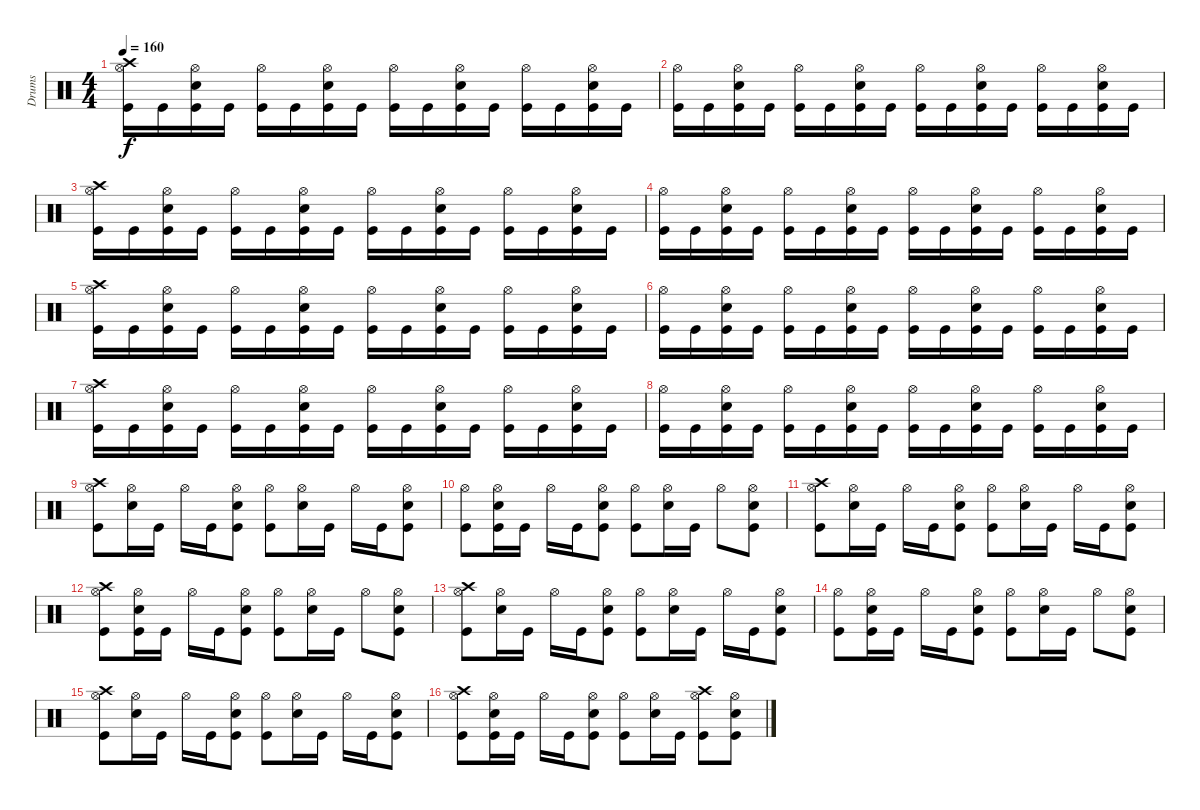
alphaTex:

\track ("Drums" "Drums") {instrument percussion}
\staff {score}
\articulation defaults
\ts (4 4)
\tempo 160
\clef neutral
\ks c
("Crash high (hit)" "Hi-Hat (open)" "Kick (hit)").16{dy f} "Kick (hit)".16 ("Hi-Hat (open)" "Electric Snare (hit)" "Kick (hit)").16 "Kick (hit)".16 ("Hi-Hat (open)" "Kick (hit)").16 "Kick (hit)".16 ("Hi-Hat (open)" "Electric Snare (hit)" "Kick (hit)").16 "Kick (hit)".16 ("Hi-Hat (open)" "Kick (hit)").16 "Kick (hit)".16 ("Hi-Hat (open)" "Electric Snare (hit)" "Kick (hit)").16 "Kick (hit)".16 ("Hi-Hat (open)" "Kick (hit)").16 "Kick (hit)".16 ("Hi-Hat (open)" "Electric Snare (hit)" "Kick (hit)").16 "Kick (hit)".16 |
("Hi-Hat (open)" "Kick (hit)").16 "Kick (hit)".16 ("Hi-Hat (open)" "Electric Snare (hit)" "Kick (hit)").16 "Kick (hit)".16 ("Hi-Hat (open)" "Kick (hit)").16 "Kick (hit)".16 ("Hi-Hat (open)" "Electric Snare (hit)" "Kick (hit)").16 "Kick (hit)".16 ("Hi-Hat (open)" "Kick (hit)").16 "Kick (hit)".16 ("Hi-Hat (open)" "Electric Snare (hit)" "Kick (hit)").16 "Kick (hit)".16 ("Hi-Hat (open)" "Kick (hit)").16 "Kick (hit)".16 ("Hi-Hat (open)" "Electric Snare (hit)" "Kick (hit)").16 "Kick (hit)".16 |
("Crash high (hit)" "Hi-Hat (open)" "Kick (hit)").16 "Kick (hit)".16 ("Hi-Hat (open)" "Electric Snare (hit)" "Kick (hit)").16 "Kick (hit)".16 ("Hi-Hat (open)" "Kick (hit)").16 "Kick (hit)".16 ("Hi-Hat (open)" "Electric Snare (hit)" "Kick (hit)").16 "Kick (hit)".16 ("Hi-Hat (open)" "Kick (hit)").16 "Kick (hit)".16 ("Hi-Hat (open)" "Electric Snare (hit)" "Kick (hit)").16 "Kick (hit)".16 ("Hi-Hat (open)" "Kick (hit)").16 "Kick (hit)".16 ("Hi-Hat (open)" "Electric Snare (hit)" "Kick (hit)").16 "Kick (hit)".16 |
("Hi-Hat (open)" "Kick (hit)").16 "Kick (hit)".16 ("Hi-Hat (open)" "Electric Snare (hit)" "Kick (hit)").16 "Kick (hit)".16 ("Hi-Hat (open)" "Kick (hit)").16 "Kick (hit)".16 ("Hi-Hat (open)" "Electric Snare (hit)" "Kick (hit)").16 "Kick (hit)".16 ("Hi-Hat (open)" "Kick (hit)").16 "Kick (hit)".16 ("Hi-Hat (open)" "Electric Snare (hit)" "Kick (hit)").16 "Kick (hit)".16 ("Hi-Hat (open)" "Kick (hit)").16 "Kick (hit)".16 ("Hi-Hat (open)" "Electric Snare (hit)" "Kick (hit)").16 "Kick (hit)".16 |
("Crash high (hit)" "Hi-Hat (open)" "Kick (hit)").16 "Kick (hit)".16 ("Hi-Hat (open)" "Electric Snare (hit)" "Kick (hit)").16 "Kick (hit)".16 ("Hi-Hat (open)" "Kick (hit)").16 "Kick (hit)".16 ("Hi-Hat (open)" "Electric Snare (hit)" "Kick (hit)").16 "Kick (hit)".16 ("Hi-Hat (open)" "Kick (hit)").16 "Kick (hit)".16 ("Hi-Hat (open)" "Electric Snare (hit)" "Kick (hit)").16 "Kick (hit)".16 ("Hi-Hat (open)" "Kick (hit)").16 "Kick (hit)".16 ("Hi-Hat (open)" "Electric Snare (hit)" "Kick (hit)").16 "Kick (hit)".16 |
("Hi-Hat (open)" "Kick (hit)").16 "Kick (hit)".16 ("Hi-Hat (open)" "Electric Snare (hit)" "Kick (hit)").16 "Kick (hit)".16 ("Hi-Hat (open)" "Kick (hit)").16 "Kick (hit)".16 ("Hi-Hat (open)" "Electric Snare (hit)" "Kick (hit)").16 "Kick (hit)".16 ("Hi-Hat (open)" "Kick (hit)").16 "Kick (hit)".16 ("Hi-Hat (open)" "Electric Snare (hit)" "Kick (hit)").16 "Kick (hit)".16 ("Hi-Hat (open)" "Kick (hit)").16 "Kick (hit)".16 ("Hi-Hat (open)" "Electric Snare (hit)" "Kick (hit)").16 "Kick (hit)".16 |
("Crash high (hit)" "Hi-Hat (open)" "Kick (hit)").16 "Kick (hit)".16 ("Hi-Hat (open)" "Electric Snare (hit)" "Kick (hit)").16 "Kick (hit)".16 ("Hi-Hat (open)" "Kick (hit)").16 "Kick (hit)".16 ("Hi-Hat (open)" "Electric Snare (hit)" "Kick (hit)").16 "Kick (hit)".16 ("Hi-Hat (open)" "Kick (hit)").16 "Kick (hit)".16 ("Hi-Hat (open)" "Electric Snare (hit)" "Kick (hit)").16 "Kick (hit)".16 ("Hi-Hat (open)" "Kick (hit)").16 "Kick (hit)".16 ("Hi-Hat (open)" "Electric Snare (hit)" "Kick (hit)").16 "Kick (hit)".16 |
("Hi-Hat (open)" "Kick (hit)").16 "Kick (hit)".16 ("Hi-Hat (open)" "Electric Snare (hit)" "Kick (hit)").16 "Kick (hit)".16 ("Hi-Hat (open)" "Kick (hit)").16 "Kick (hit)".16 ("Hi-Hat (open)" "Electric Snare (hit)" "Kick (hit)").16 "Kick (hit)".16 ("Hi-Hat (open)" "Kick (hit)").16 "Kick (hit)".16 ("Hi-Hat (open)" "Electric Snare (hit)" "Kick (hit)").16 "Kick (hit)".16 ("Hi-Hat (open)" "Kick (hit)").16 "Kick (hit)".16 ("Hi-Hat (open)" "Electric Snare (hit)" "Kick (hit)").16 "Kick (hit)".16 |
("Crash high (hit)" "Hi-Hat (open)" "Kick (hit)").8 ("Hi-Hat (open)" "Electric Snare (hit)").16 "Kick (hit)".16 "Hi-Hat (open)".16 "Kick (hit)".16 ("Hi-Hat (open)" "Electric Snare (hit)" "Kick (hit)").8 ("Hi-Hat (open)" "Kick (hit)").8 ("Hi-Hat (open)" "Electric Snare (hit)").16 "Kick (hit)".16 "Hi-Hat (open)".16 "Kick (hit)".16 ("Hi-Hat (open)" "Electric Snare (hit)" "Kick (hit)").8 |
("Hi-Hat (open)" "Kick (hit)").8 ("Hi-Hat (open)" "Electric Snare (hit)" "Kick (hit)").16 "Kick (hit)".16 "Hi-Hat (open)".16 "Kick (hit)".16 ("Hi-Hat (open)" "Electric Snare (hit)" "Kick (hit)").8 ("Hi-Hat (open)" "Kick (hit)").8 ("Hi-Hat (open)" "Electric Snare (hit)").16 "Kick (hit)".16 "Hi-Hat (open)".8 ("Hi-Hat (open)" "Electric Snare (hit)" "Kick (hit)").8 |
("Crash high (hit)" "Hi-Hat (open)" "Kick (hit)").8 ("Hi-Hat (open)" "Electric Snare (hit)").16 "Kick (hit)".16 "Hi-Hat (open)".16 "Kick (hit)".16 ("Hi-Hat (open)" "Electric Snare (hit)" "Kick (hit)").8 ("Hi-Hat (open)" "Kick (hit)").8 ("Hi-Hat (open)" "Electric Snare (hit)").16 "Kick (hit)".16 "Hi-Hat (open)".16 "Kick (hit)".16 ("Hi-Hat (open)" "Electric Snare (hit)" "Kick (hit)").8 |
("Crash high (hit)" "Hi-Hat (open)" "Kick (hit)").8 ("Hi-Hat (open)" "Electric Snare (hit)" "Kick (hit)").16 "Kick (hit)".16 "Hi-Hat (open)".16 "Kick (hit)".16 ("Hi-Hat (open)" "Electric Snare (hit)" "Kick (hit)").8 ("Hi-Hat (open)" "Kick (hit)").8 ("Hi-Hat (open)" "Electric Snare (hit)").16 "Kick (hit)".16 "Hi-Hat (open)".8 ("Hi-Hat (open)" "Electric Snare (hit)" "Kick (hit)").8 |
("Crash high (hit)" "Hi-Hat (open)" "Kick (hit)").8 ("Hi-Hat (open)" "Electric Snare (hit)").16 "Kick (hit)".16 "Hi-Hat (open)".16 "Kick (hit)".16 ("Hi-Hat (open)" "Electric Snare (hit)" "Kick (hit)").8 ("Hi-Hat (open)" "Kick (hit)").8 ("Hi-Hat (open)" "Electric Snare (hit)").16 "Kick (hit)".16 "Hi-Hat (open)".16 "Kick (hit)".16 ("Hi-Hat (open)" "Electric Snare (hit)" "Kick (hit)").8 |
("Hi-Hat (open)" "Kick (hit)").8 ("Hi-Hat (open)" "Electric Snare (hit)" "Kick (hit)").16 "Kick (hit)".16 "Hi-Hat (open)".16 "Kick (hit)".16 ("Hi-Hat (open)" "Electric Snare (hit)" "Kick (hit)").8 ("Hi-Hat (open)" "Kick (hit)").8 ("Hi-Hat (open)" "Electric Snare (hit)").16 "Kick (hit)".16 "Hi-Hat (open)".8 ("Hi-Hat (open)" "Electric Snare (hit)" "Kick (hit)").8 |
("Crash high (hit)" "Hi-Hat (open)" "Kick (hit)").8 ("Hi-Hat (open)" "Electric Snare (hit)").16 "Kick (hit)".16 "Hi-Hat (open)".16 "Kick (hit)".16 ("Hi-Hat (open)" "Electric Snare (hit)" "Kick (hit)").8 ("Hi-Hat (open)" "Kick (hit)").8 ("Hi-Hat (open)" "Electric Snare (hit)").16 "Kick (hit)".16 "Hi-Hat (open)".16 "Kick (hit)".16 ("Hi-Hat (open)" "Electric Snare (hit)" "Kick (hit)").8 |
("Crash high (hit)" "Hi-Hat (open)" "Kick (hit)").8 ("Hi-Hat (open)" "Electric Snare (hit)" "Kick (hit)").16 "Kick (hit)".16 "Hi-Hat (open)".16 "Kick (hit)".16 ("Hi-Hat (open)" "Electric Snare (hit)" "Kick (hit)").8 ("Hi-Hat (open)" "Kick (hit)").8 ("Hi-Hat (open)" "Electric Snare (hit)").16 "Kick (hit)".16 ("Crash high (hit)" "Kick (hit)" "Hi-Hat (open)").8 ("Hi-Hat (open)" "Electric Snare (hit)" "Kick (hit)").8
